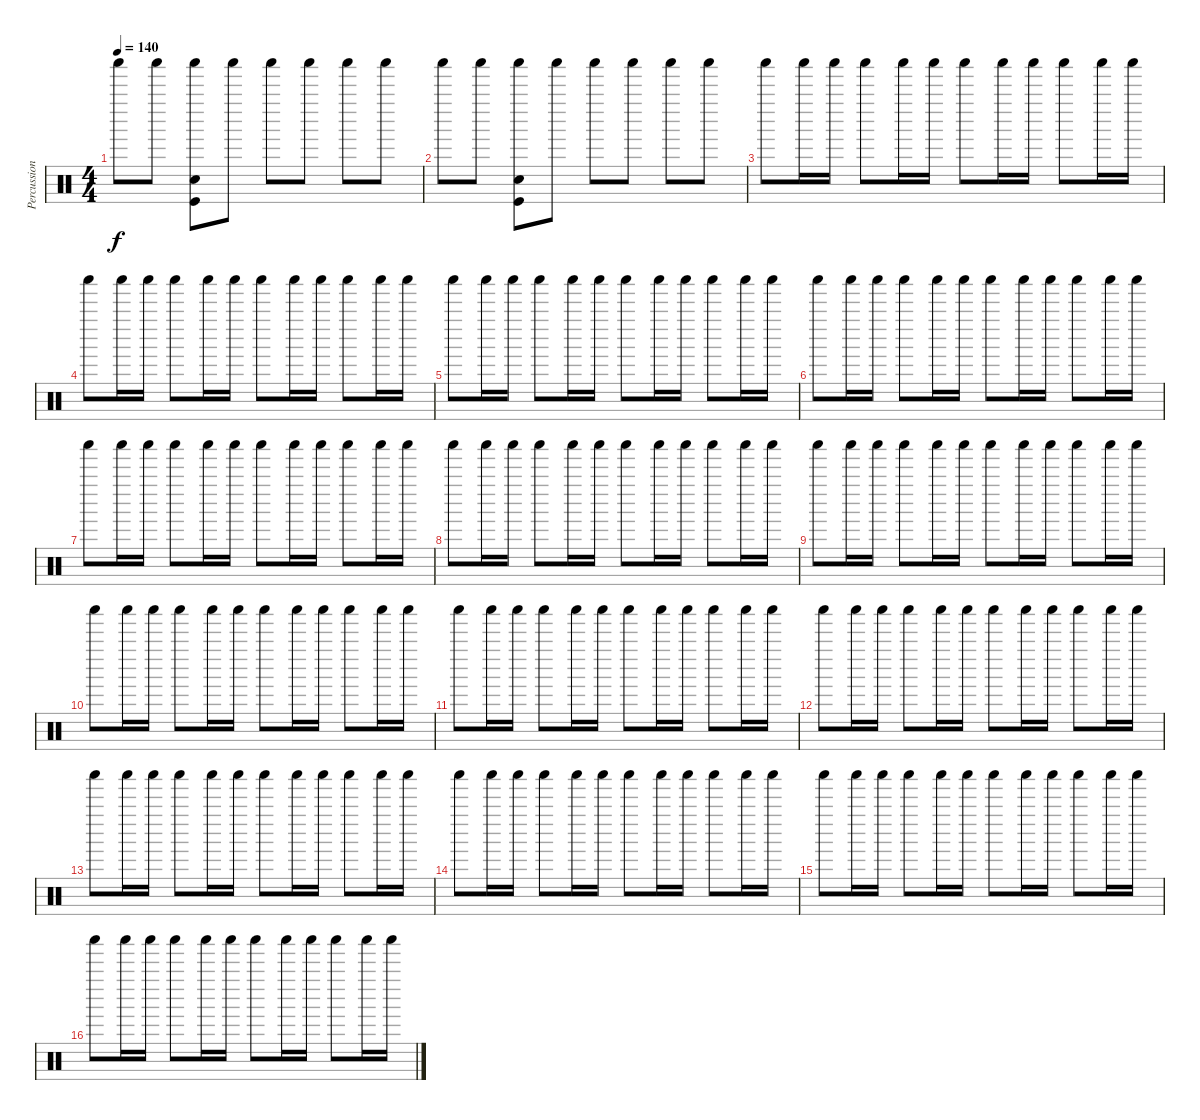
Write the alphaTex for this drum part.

\track ("Percussion" "Percussion") {instrument percussion}
\staff {score}
\articulation defaults
\ts (4 4)
\tempo 140
\clef neutral
\ks c "Shaker (hit)".8{dy f} "Shaker (hit)".8
("Shaker (hit)" "Snare (hit) 2" "Kick (hit)").8 "Shaker (hit)".8 "Shaker (hit)".8 "Shaker (hit)".8 "Shaker (hit)".8 "Shaker (hit)".8 |
"Shaker (hit)".8 "Shaker (hit)".8 ("Shaker (hit)" "Snare (hit) 2" "Kick (hit)").8 "Shaker (hit)".8 "Shaker (hit)".8 "Shaker (hit)".8 "Shaker (hit)".8 "Shaker (hit)".8 |
"Shaker (hit)".8 "Shaker (hit)".16 "Shaker (hit)".16 "Shaker (hit)".8 "Shaker (hit)".16 "Shaker (hit)".16 "Shaker (hit)".8 "Shaker (hit)".16 "Shaker (hit)".16 "Shaker (hit)".8 "Shaker (hit)".16 "Shaker (hit)".16 |
"Shaker (hit)".8 "Shaker (hit)".16 "Shaker (hit)".16 "Shaker (hit)".8 "Shaker (hit)".16 "Shaker (hit)".16 "Shaker (hit)".8 "Shaker (hit)".16 "Shaker (hit)".16 "Shaker (hit)".8 "Shaker (hit)".16 "Shaker (hit)".16 |
"Shaker (hit)".8 "Shaker (hit)".16 "Shaker (hit)".16 "Shaker (hit)".8 "Shaker (hit)".16 "Shaker (hit)".16 "Shaker (hit)".8 "Shaker (hit)".16 "Shaker (hit)".16 "Shaker (hit)".8 "Shaker (hit)".16 "Shaker (hit)".16 |
"Shaker (hit)".8 "Shaker (hit)".16 "Shaker (hit)".16 "Shaker (hit)".8 "Shaker (hit)".16 "Shaker (hit)".16 "Shaker (hit)".8 "Shaker (hit)".16 "Shaker (hit)".16 "Shaker (hit)".8 "Shaker (hit)".16 "Shaker (hit)".16 |
"Shaker (hit)".8 "Shaker (hit)".16 "Shaker (hit)".16 "Shaker (hit)".8 "Shaker (hit)".16 "Shaker (hit)".16 "Shaker (hit)".8 "Shaker (hit)".16 "Shaker (hit)".16 "Shaker (hit)".8 "Shaker (hit)".16 "Shaker (hit)".16 |
"Shaker (hit)".8 "Shaker (hit)".16 "Shaker (hit)".16 "Shaker (hit)".8 "Shaker (hit)".16 "Shaker (hit)".16 "Shaker (hit)".8 "Shaker (hit)".16 "Shaker (hit)".16 "Shaker (hit)".8 "Shaker (hit)".16 "Shaker (hit)".16 |
"Shaker (hit)".8 "Shaker (hit)".16 "Shaker (hit)".16 "Shaker (hit)".8 "Shaker (hit)".16 "Shaker (hit)".16 "Shaker (hit)".8 "Shaker (hit)".16 "Shaker (hit)".16 "Shaker (hit)".8 "Shaker (hit)".16 "Shaker (hit)".16 |
"Shaker (hit)".8 "Shaker (hit)".16 "Shaker (hit)".16 "Shaker (hit)".8 "Shaker (hit)".16 "Shaker (hit)".16 "Shaker (hit)".8 "Shaker (hit)".16 "Shaker (hit)".16 "Shaker (hit)".8 "Shaker (hit)".16 "Shaker (hit)".16 |
"Shaker (hit)".8 "Shaker (hit)".16 "Shaker (hit)".16 "Shaker (hit)".8 "Shaker (hit)".16 "Shaker (hit)".16 "Shaker (hit)".8 "Shaker (hit)".16 "Shaker (hit)".16 "Shaker (hit)".8 "Shaker (hit)".16 "Shaker (hit)".16 |
"Shaker (hit)".8 "Shaker (hit)".16 "Shaker (hit)".16 "Shaker (hit)".8 "Shaker (hit)".16 "Shaker (hit)".16 "Shaker (hit)".8 "Shaker (hit)".16 "Shaker (hit)".16 "Shaker (hit)".8 "Shaker (hit)".16 "Shaker (hit)".16 |
"Shaker (hit)".8 "Shaker (hit)".16 "Shaker (hit)".16 "Shaker (hit)".8 "Shaker (hit)".16 "Shaker (hit)".16 "Shaker (hit)".8 "Shaker (hit)".16 "Shaker (hit)".16 "Shaker (hit)".8 "Shaker (hit)".16 "Shaker (hit)".16 |
"Shaker (hit)".8 "Shaker (hit)".16 "Shaker (hit)".16 "Shaker (hit)".8 "Shaker (hit)".16 "Shaker (hit)".16 "Shaker (hit)".8 "Shaker (hit)".16 "Shaker (hit)".16 "Shaker (hit)".8 "Shaker (hit)".16 "Shaker (hit)".16 |
"Shaker (hit)".8 "Shaker (hit)".16 "Shaker (hit)".16 "Shaker (hit)".8 "Shaker (hit)".16 "Shaker (hit)".16 "Shaker (hit)".8 "Shaker (hit)".16 "Shaker (hit)".16 "Shaker (hit)".8 "Shaker (hit)".16 "Shaker (hit)".16 |
"Shaker (hit)".8 "Shaker (hit)".16 "Shaker (hit)".16 "Shaker (hit)".8 "Shaker (hit)".16 "Shaker (hit)".16 "Shaker (hit)".8 "Shaker (hit)".16 "Shaker (hit)".16 "Shaker (hit)".8 "Shaker (hit)".16 "Shaker (hit)".16
